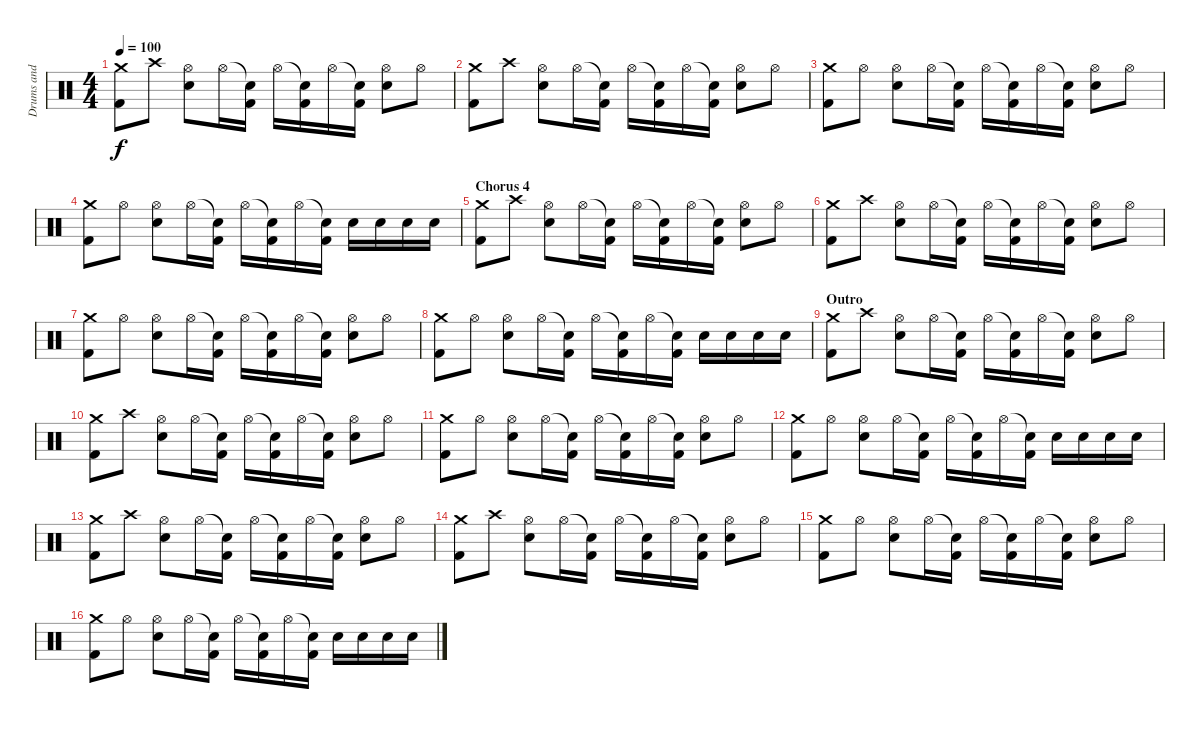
\track ("Drums and Percussion" "Drums and ") {instrument percussion}
\staff {score}
\articulation defaults
\ts (4 4)
\tempo 100
\clef neutral
\ks c
("Crash medium (hit)" "Kick (hit) 2").8{dy f} "Crash high (hit)".8 ("Hi-Hat (open)" "Electric Snare (hit)").8 "Hi-Hat (open)".16 ("Snare (hit)"{t} "Kick (hit) 2").16 "Hi-Hat (open)".16 ("Snare (hit)"{t} "Kick (hit) 2").16 "Hi-Hat (open)".16 ("Snare (hit)"{t} "Kick (hit) 2").16 ("Hi-Hat (open)" "Electric Snare (hit)").8 "Hi-Hat (open)".8 |
("Crash medium (hit)" "Kick (hit) 2").8 "Crash high (hit)".8 ("Hi-Hat (open)" "Electric Snare (hit)").8 "Hi-Hat (open)".16 ("Snare (hit)"{t} "Kick (hit) 2").16 "Hi-Hat (open)".16 ("Snare (hit)"{t} "Kick (hit) 2").16 "Hi-Hat (open)".16 ("Snare (hit)"{t} "Kick (hit) 2").16 ("Hi-Hat (open)" "Electric Snare (hit)").8 "Hi-Hat (open)".8 |
("Crash medium (hit)" "Kick (hit) 2").8 "Hi-Hat (open)".8 ("Hi-Hat (open)" "Electric Snare (hit)").8 "Hi-Hat (open)".16 ("Snare (hit)"{t} "Kick (hit) 2").16 "Hi-Hat (open)".16 ("Snare (hit)"{t} "Kick (hit) 2").16 "Hi-Hat (open)".16 ("Snare (hit)"{t} "Kick (hit) 2").16 ("Hi-Hat (open)" "Electric Snare (hit)").8 "Hi-Hat (open)".8 |
("Crash medium (hit)" "Kick (hit) 2").8 "Hi-Hat (open)".8 ("Hi-Hat (open)" "Electric Snare (hit)").8 "Hi-Hat (open)".16 ("Snare (hit)"{t} "Kick (hit) 2").16 "Hi-Hat (open)".16 ("Snare (hit)"{t} "Kick (hit) 2").16 "Hi-Hat (open)".16 ("Snare (hit)"{t} "Kick (hit) 2").16 "Electric Snare (hit)".16 "Electric Snare (hit)".16 "Electric Snare (hit)".16 "Electric Snare (hit)".16 |
\section ("" "Chorus 4")
("Crash medium (hit)" "Kick (hit) 2").8 "Crash high (hit)".8 ("Hi-Hat (open)" "Electric Snare (hit)").8 "Hi-Hat (open)".16 ("Snare (hit)"{t} "Kick (hit) 2").16 "Hi-Hat (open)".16 ("Snare (hit)"{t} "Kick (hit) 2").16 "Hi-Hat (open)".16 ("Snare (hit)"{t} "Kick (hit) 2").16 ("Hi-Hat (open)" "Electric Snare (hit)").8 "Hi-Hat (open)".8 |
("Crash medium (hit)" "Kick (hit) 2").8 "Crash high (hit)".8 ("Hi-Hat (open)" "Electric Snare (hit)").8 "Hi-Hat (open)".16 ("Snare (hit)"{t} "Kick (hit) 2").16 "Hi-Hat (open)".16 ("Snare (hit)"{t} "Kick (hit) 2").16 "Hi-Hat (open)".16 ("Snare (hit)"{t} "Kick (hit) 2").16 ("Hi-Hat (open)" "Electric Snare (hit)").8 "Hi-Hat (open)".8 |
("Crash medium (hit)" "Kick (hit) 2").8 "Hi-Hat (open)".8 ("Hi-Hat (open)" "Electric Snare (hit)").8 "Hi-Hat (open)".16 ("Snare (hit)"{t} "Kick (hit) 2").16 "Hi-Hat (open)".16 ("Snare (hit)"{t} "Kick (hit) 2").16 "Hi-Hat (open)".16 ("Snare (hit)"{t} "Kick (hit) 2").16 ("Hi-Hat (open)" "Electric Snare (hit)").8 "Hi-Hat (open)".8 |
("Crash medium (hit)" "Kick (hit) 2").8 "Hi-Hat (open)".8 ("Hi-Hat (open)" "Electric Snare (hit)").8 "Hi-Hat (open)".16 ("Snare (hit)"{t} "Kick (hit) 2").16 "Hi-Hat (open)".16 ("Snare (hit)"{t} "Kick (hit) 2").16 "Hi-Hat (open)".16 ("Snare (hit)"{t} "Kick (hit) 2").16 "Electric Snare (hit)".16 "Electric Snare (hit)".16 "Electric Snare (hit)".16 "Electric Snare (hit)".16 |
\section ("" "Outro")
("Crash medium (hit)" "Kick (hit) 2").8 "Crash high (hit)".8 ("Hi-Hat (open)" "Electric Snare (hit)").8 "Hi-Hat (open)".16 ("Snare (hit)"{t} "Kick (hit) 2").16 "Hi-Hat (open)".16 ("Snare (hit)"{t} "Kick (hit) 2").16 "Hi-Hat (open)".16 ("Snare (hit)"{t} "Kick (hit) 2").16 ("Hi-Hat (open)" "Electric Snare (hit)").8 "Hi-Hat (open)".8 |
("Crash medium (hit)" "Kick (hit) 2").8 "Crash high (hit)".8 ("Hi-Hat (open)" "Electric Snare (hit)").8 "Hi-Hat (open)".16 ("Snare (hit)"{t} "Kick (hit) 2").16 "Hi-Hat (open)".16 ("Snare (hit)"{t} "Kick (hit) 2").16 "Hi-Hat (open)".16 ("Snare (hit)"{t} "Kick (hit) 2").16 ("Hi-Hat (open)" "Electric Snare (hit)").8 "Hi-Hat (open)".8 |
("Crash medium (hit)" "Kick (hit) 2").8 "Hi-Hat (open)".8 ("Hi-Hat (open)" "Electric Snare (hit)").8 "Hi-Hat (open)".16 ("Snare (hit)"{t} "Kick (hit) 2").16 "Hi-Hat (open)".16 ("Snare (hit)"{t} "Kick (hit) 2").16 "Hi-Hat (open)".16 ("Snare (hit)"{t} "Kick (hit) 2").16 ("Hi-Hat (open)" "Electric Snare (hit)").8 "Hi-Hat (open)".8 |
("Crash medium (hit)" "Kick (hit) 2").8 "Hi-Hat (open)".8 ("Hi-Hat (open)" "Electric Snare (hit)").8 "Hi-Hat (open)".16 ("Snare (hit)"{t} "Kick (hit) 2").16 "Hi-Hat (open)".16 ("Snare (hit)"{t} "Kick (hit) 2").16 "Hi-Hat (open)".16 ("Snare (hit)"{t} "Kick (hit) 2").16 "Electric Snare (hit)".16 "Electric Snare (hit)".16 "Electric Snare (hit)".16 "Electric Snare (hit)".16 |
("Crash medium (hit)" "Kick (hit) 2").8 "Crash high (hit)".8 ("Hi-Hat (open)" "Electric Snare (hit)").8 "Hi-Hat (open)".16 ("Snare (hit)"{t} "Kick (hit) 2").16 "Hi-Hat (open)".16 ("Snare (hit)"{t} "Kick (hit) 2").16 "Hi-Hat (open)".16 ("Snare (hit)"{t} "Kick (hit) 2").16 ("Hi-Hat (open)" "Electric Snare (hit)").8 "Hi-Hat (open)".8 |
("Crash medium (hit)" "Kick (hit) 2").8 "Crash high (hit)".8 ("Hi-Hat (open)" "Electric Snare (hit)").8 "Hi-Hat (open)".16 ("Snare (hit)"{t} "Kick (hit) 2").16 "Hi-Hat (open)".16 ("Snare (hit)"{t} "Kick (hit) 2").16 "Hi-Hat (open)".16 ("Snare (hit)"{t} "Kick (hit) 2").16 ("Hi-Hat (open)" "Electric Snare (hit)").8 "Hi-Hat (open)".8 |
("Crash medium (hit)" "Kick (hit) 2").8 "Hi-Hat (open)".8 ("Hi-Hat (open)" "Electric Snare (hit)").8 "Hi-Hat (open)".16 ("Snare (hit)"{t} "Kick (hit) 2").16 "Hi-Hat (open)".16 ("Snare (hit)"{t} "Kick (hit) 2").16 "Hi-Hat (open)".16 ("Snare (hit)"{t} "Kick (hit) 2").16 ("Hi-Hat (open)" "Electric Snare (hit)").8 "Hi-Hat (open)".8 |
("Crash medium (hit)" "Kick (hit) 2").8 "Hi-Hat (open)".8 ("Hi-Hat (open)" "Electric Snare (hit)").8 "Hi-Hat (open)".16 ("Snare (hit)"{t} "Kick (hit) 2").16 "Hi-Hat (open)".16 ("Snare (hit)"{t} "Kick (hit) 2").16 "Hi-Hat (open)".16 ("Snare (hit)"{t} "Kick (hit) 2").16 "Electric Snare (hit)".16 "Electric Snare (hit)".16 "Electric Snare (hit)".16 "Electric Snare (hit)".16
